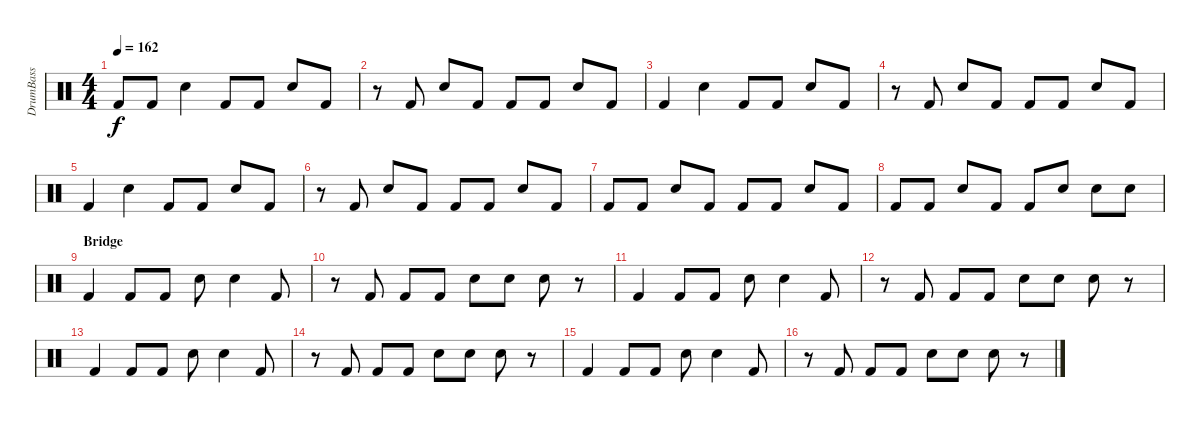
\track ("DrumBass" "DrumBass") {instrument percussion}
\staff {score}
\articulation defaults
\ts (4 4)
\tempo 162
\clef neutral
\ks c "Kick (hit) 2".8{dy f} "Kick (hit) 2".8 "Snare (hit) 2".4 "Kick (hit) 2".8 "Kick (hit) 2".8 "Snare (hit) 2".8 "Kick (hit) 2".8
|
r.8 "Kick (hit) 2".8 "Snare (hit) 2".8 "Kick (hit) 2".8 "Kick (hit) 2".8 "Kick (hit) 2".8 "Snare (hit) 2".8 "Kick (hit) 2".8 |
"Kick (hit) 2".4 "Snare (hit) 2".4 "Kick (hit) 2".8 "Kick (hit) 2".8 "Snare (hit) 2".8 "Kick (hit) 2".8 |
r.8 "Kick (hit) 2".8 "Snare (hit) 2".8 "Kick (hit) 2".8 "Kick (hit) 2".8 "Kick (hit) 2".8 "Snare (hit) 2".8 "Kick (hit) 2".8 |
"Kick (hit) 2".4 "Snare (hit) 2".4 "Kick (hit) 2".8 "Kick (hit) 2".8 "Snare (hit) 2".8 "Kick (hit) 2".8 |
r.8 "Kick (hit) 2".8 "Snare (hit) 2".8 "Kick (hit) 2".8 "Kick (hit) 2".8 "Kick (hit) 2".8 "Snare (hit) 2".8 "Kick (hit) 2".8 |
"Kick (hit) 2".8 "Kick (hit) 2".8 "Snare (hit) 2".8 "Kick (hit) 2".8 "Kick (hit) 2".8 "Kick (hit) 2".8 "Snare (hit) 2".8 "Kick (hit) 2".8 |
"Kick (hit) 2".8 "Kick (hit) 2".8 "Snare (hit) 2".8 "Kick (hit) 2".8 "Kick (hit) 2".8 "Snare (hit) 2"{tr (38 16)}.8 "Snare (hit) 2"{tr (38 16)}.8 "Snare (hit) 2"{tr (38 16)}.8 |
\section ("" "Bridge")
"Kick (hit) 2".4 "Kick (hit) 2".8 "Kick (hit) 2".8 "Snare (hit) 2".8 "Snare (hit) 2".4 "Kick (hit) 2".8 |
r.8 "Kick (hit) 2".8 "Kick (hit) 2".8 "Kick (hit) 2".8 "Snare (hit) 2".8 "Snare (hit) 2".8 "Snare (hit) 2".8 r.8 |
"Kick (hit) 2".4 "Kick (hit) 2".8 "Kick (hit) 2".8 "Snare (hit) 2".8 "Snare (hit) 2".4 "Kick (hit) 2".8 |
r.8 "Kick (hit) 2".8 "Kick (hit) 2".8 "Kick (hit) 2".8 "Snare (hit) 2".8 "Snare (hit) 2".8 "Snare (hit) 2".8 r.8 |
"Kick (hit) 2".4 "Kick (hit) 2".8 "Kick (hit) 2".8 "Snare (hit) 2".8 "Snare (hit) 2".4 "Kick (hit) 2".8 |
r.8 "Kick (hit) 2".8 "Kick (hit) 2".8 "Kick (hit) 2".8 "Snare (hit) 2".8 "Snare (hit) 2".8 "Snare (hit) 2".8 r.8 |
"Kick (hit) 2".4 "Kick (hit) 2".8 "Kick (hit) 2".8 "Snare (hit) 2".8 "Snare (hit) 2".4 "Kick (hit) 2".8 |
r.8 "Kick (hit) 2".8 "Kick (hit) 2".8 "Kick (hit) 2".8 "Snare (hit) 2"{tr (38 16)}.8 "Snare (hit) 2"{tr (38 16)}.8 "Snare (hit) 2"{tr (38 16)}.8 r.8
